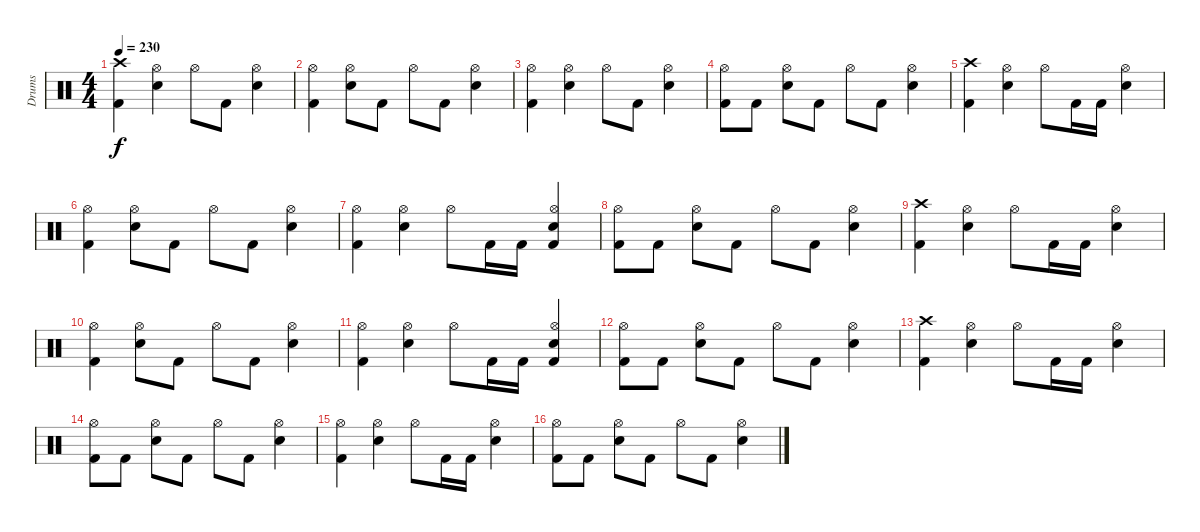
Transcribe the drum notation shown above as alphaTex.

\track ("Drums" "Drums") {instrument percussion}
\staff {score}
\articulation defaults
\ts (4 4)
\tempo 230
\clef neutral
\ks c
("Crash high (hit)" "Kick (hit) 2").4{dy f} ("Hi-Hat (open)" "Electric Snare (hit)").4 "Hi-Hat (open)".8 "Kick (hit) 2".8 ("Hi-Hat (open)" "Electric Snare (hit)").4 |
("Hi-Hat (open)" "Kick (hit) 2").4 ("Hi-Hat (open)" "Electric Snare (hit)").8 "Kick (hit) 2".8 "Hi-Hat (open)".8 "Kick (hit) 2".8 ("Hi-Hat (open)" "Electric Snare (hit)").4 |
("Hi-Hat (open)" "Kick (hit) 2").4 ("Hi-Hat (open)" "Electric Snare (hit)").4 "Hi-Hat (open)".8 "Kick (hit) 2".8 ("Hi-Hat (open)" "Electric Snare (hit)").4 |
("Hi-Hat (open)" "Kick (hit) 2").8 "Kick (hit) 2".8 ("Hi-Hat (open)" "Electric Snare (hit)").8 "Kick (hit) 2".8 "Hi-Hat (open)".8 "Kick (hit) 2".8 ("Hi-Hat (open)" "Electric Snare (hit)").4 |
("Crash high (hit)" "Kick (hit) 2").4 ("Hi-Hat (open)" "Electric Snare (hit)").4 "Hi-Hat (open)".8 "Kick (hit) 2".16 "Kick (hit) 2".16 ("Hi-Hat (open)" "Electric Snare (hit)").4 |
("Hi-Hat (open)" "Kick (hit) 2").4 ("Hi-Hat (open)" "Electric Snare (hit)").8 "Kick (hit) 2".8 "Hi-Hat (open)".8 "Kick (hit) 2".8 ("Hi-Hat (open)" "Electric Snare (hit)").4 |
("Hi-Hat (open)" "Kick (hit) 2").4 ("Hi-Hat (open)" "Electric Snare (hit)").4 "Hi-Hat (open)".8 "Kick (hit) 2".16 "Kick (hit) 2".16 ("Hi-Hat (open)" "Electric Snare (hit)" "Kick (hit) 2").4 |
("Hi-Hat (open)" "Kick (hit) 2").8 "Kick (hit) 2".8 ("Hi-Hat (open)" "Electric Snare (hit)").8 "Kick (hit) 2".8 "Hi-Hat (open)".8 "Kick (hit) 2".8 ("Hi-Hat (open)" "Electric Snare (hit)").4 |
("Crash high (hit)" "Kick (hit) 2").4 ("Hi-Hat (open)" "Electric Snare (hit)").4 "Hi-Hat (open)".8 "Kick (hit) 2".16 "Kick (hit) 2".16 ("Hi-Hat (open)" "Electric Snare (hit)").4 |
("Hi-Hat (open)" "Kick (hit) 2").4 ("Hi-Hat (open)" "Electric Snare (hit)").8 "Kick (hit) 2".8 "Hi-Hat (open)".8 "Kick (hit) 2".8 ("Hi-Hat (open)" "Electric Snare (hit)").4 |
("Hi-Hat (open)" "Kick (hit) 2").4 ("Hi-Hat (open)" "Electric Snare (hit)").4 "Hi-Hat (open)".8 "Kick (hit) 2".16 "Kick (hit) 2".16 ("Hi-Hat (open)" "Electric Snare (hit)" "Kick (hit) 2").4 |
("Hi-Hat (open)" "Kick (hit) 2").8 "Kick (hit) 2".8 ("Hi-Hat (open)" "Electric Snare (hit)").8 "Kick (hit) 2".8 "Hi-Hat (open)".8 "Kick (hit) 2".8 ("Hi-Hat (open)" "Electric Snare (hit)").4 |
("Crash high (hit)" "Kick (hit) 2").4 ("Hi-Hat (open)" "Electric Snare (hit)").4 "Hi-Hat (open)".8 "Kick (hit) 2".16 "Kick (hit) 2".16 ("Hi-Hat (open)" "Electric Snare (hit)").4 |
("Hi-Hat (open)" "Kick (hit) 2").8 "Kick (hit) 2".8 ("Hi-Hat (open)" "Electric Snare (hit)").8 "Kick (hit) 2".8 "Hi-Hat (open)".8 "Kick (hit) 2".8 ("Hi-Hat (open)" "Electric Snare (hit)").4 |
("Hi-Hat (open)" "Kick (hit) 2").4 ("Hi-Hat (open)" "Electric Snare (hit)").4 "Hi-Hat (open)".8 "Kick (hit) 2".16 "Kick (hit) 2".16 ("Hi-Hat (open)" "Electric Snare (hit)").4 |
("Hi-Hat (open)" "Kick (hit) 2").8 "Kick (hit) 2".8 ("Hi-Hat (open)" "Electric Snare (hit)").8 "Kick (hit) 2".8 "Hi-Hat (open)".8 "Kick (hit) 2".8 ("Hi-Hat (open)" "Electric Snare (hit)").4
